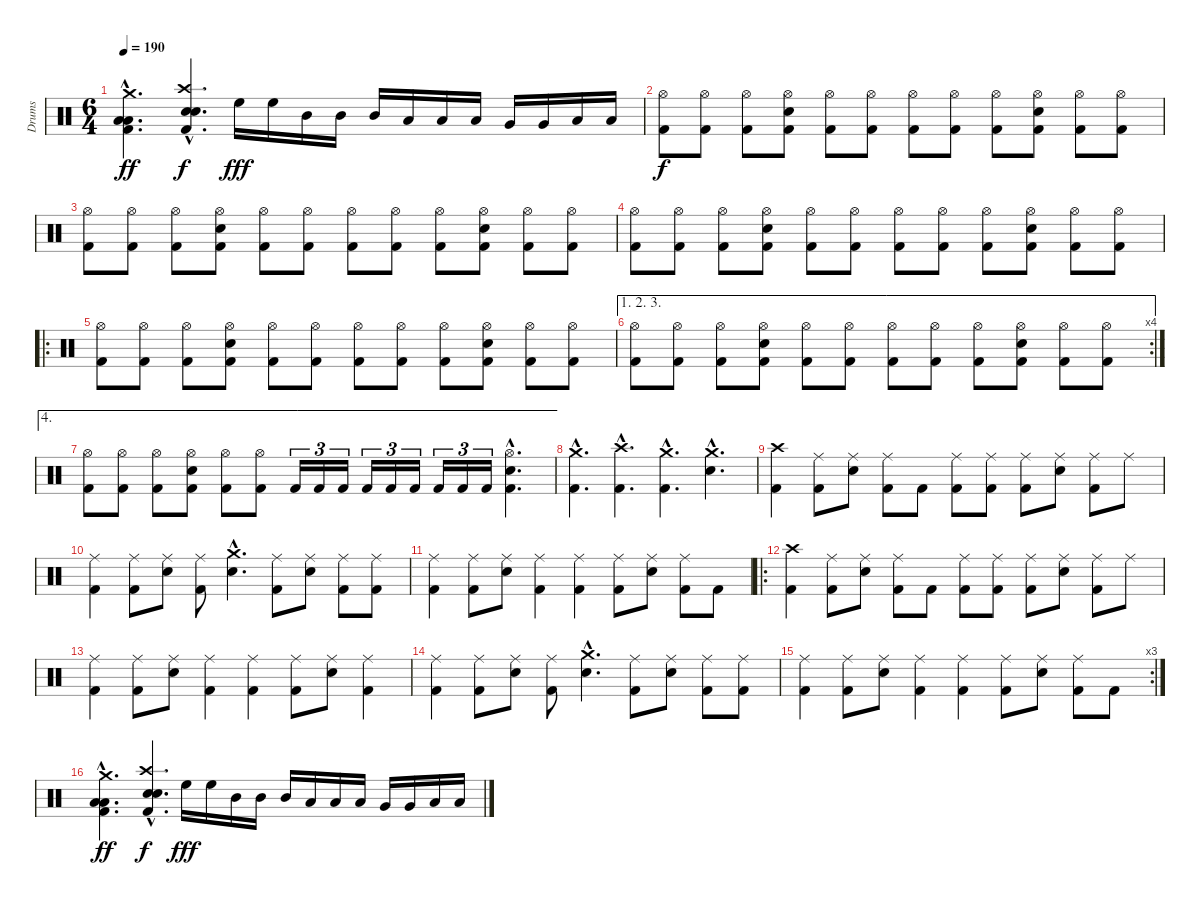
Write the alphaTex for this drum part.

\track ("Drums" "Drums") {instrument percussion}
\staff {score}
\articulation defaults
\ts (6 4)
\tempo 190
\clef neutral
\ks c
("Crash medium (hit)"{hac} "Low Floor Tom (hit)"{hac} "Low Floor Tom (hit)"{hac} "Kick (hit) 2"{hac}).4{d dy ff} ("Crash high (hit)"{hac} "Electric Snare (hit)"{hac} "Electric Snare (hit)"{hac} "Kick (hit) 2"{hac}).4{d dy f} "High Floor Tom (hit)".16{dy fff} "High Floor Tom (hit)".16 "Mid Tom (hit)".16 "Mid Tom (hit)".16 "Mid Tom (hit)".16 "Low Tom (hit)".16 "Low Tom (hit)".16 "Low Tom (hit)".16 "Very Low Tom (hit)".16 "Very Low Tom (hit)".16 "Low Floor Tom (hit)".16 "Low Floor Tom (hit)".16 |
("Hi-Hat (open)" "Kick (hit) 2").8{dy f} ("Hi-Hat (open)" "Kick (hit) 2").8 ("Hi-Hat (open)" "Kick (hit) 2").8 ("Hi-Hat (open)" "Electric Snare (hit)" "Kick (hit) 2").8 ("Hi-Hat (open)" "Kick (hit) 2").8 ("Hi-Hat (open)" "Kick (hit) 2").8 ("Hi-Hat (open)" "Kick (hit) 2").8 ("Hi-Hat (open)" "Kick (hit) 2").8 ("Hi-Hat (open)" "Kick (hit) 2").8 ("Hi-Hat (open)" "Electric Snare (hit)" "Kick (hit) 2").8 ("Hi-Hat (open)" "Kick (hit) 2").8 ("Hi-Hat (open)" "Kick (hit) 2").8 |
("Hi-Hat (open)" "Kick (hit) 2").8 ("Hi-Hat (open)" "Kick (hit) 2").8 ("Hi-Hat (open)" "Kick (hit) 2").8 ("Hi-Hat (open)" "Electric Snare (hit)" "Kick (hit) 2").8 ("Hi-Hat (open)" "Kick (hit) 2").8 ("Hi-Hat (open)" "Kick (hit) 2").8 ("Hi-Hat (open)" "Kick (hit) 2").8 ("Hi-Hat (open)" "Kick (hit) 2").8 ("Hi-Hat (open)" "Kick (hit) 2").8 ("Hi-Hat (open)" "Electric Snare (hit)" "Kick (hit) 2").8 ("Hi-Hat (open)" "Kick (hit) 2").8 ("Hi-Hat (open)" "Kick (hit) 2").8 |
("Hi-Hat (open)" "Kick (hit) 2").8 ("Hi-Hat (open)" "Kick (hit) 2").8 ("Hi-Hat (open)" "Kick (hit) 2").8 ("Hi-Hat (open)" "Electric Snare (hit)" "Kick (hit) 2").8 ("Hi-Hat (open)" "Kick (hit) 2").8 ("Hi-Hat (open)" "Kick (hit) 2").8 ("Hi-Hat (open)" "Kick (hit) 2").8 ("Hi-Hat (open)" "Kick (hit) 2").8 ("Hi-Hat (open)" "Kick (hit) 2").8 ("Hi-Hat (open)" "Electric Snare (hit)" "Kick (hit) 2").8 ("Hi-Hat (open)" "Kick (hit) 2").8 ("Hi-Hat (open)" "Kick (hit) 2").8 |
\ro
("Hi-Hat (open)" "Kick (hit) 2").8 ("Hi-Hat (open)" "Kick (hit) 2").8 ("Hi-Hat (open)" "Kick (hit) 2").8 ("Hi-Hat (open)" "Electric Snare (hit)" "Kick (hit) 2").8 ("Hi-Hat (open)" "Kick (hit) 2").8 ("Hi-Hat (open)" "Kick (hit) 2").8 ("Hi-Hat (open)" "Kick (hit) 2").8 ("Hi-Hat (open)" "Kick (hit) 2").8 ("Hi-Hat (open)" "Kick (hit) 2").8 ("Hi-Hat (open)" "Electric Snare (hit)" "Kick (hit) 2").8 ("Hi-Hat (open)" "Kick (hit) 2").8 ("Hi-Hat (open)" "Kick (hit) 2").8 |
\ae (1 2 3)
\rc 4
("Hi-Hat (open)" "Kick (hit) 2").8 ("Hi-Hat (open)" "Kick (hit) 2").8 ("Hi-Hat (open)" "Kick (hit) 2").8 ("Hi-Hat (open)" "Electric Snare (hit)" "Kick (hit) 2").8 ("Hi-Hat (open)" "Kick (hit) 2").8 ("Hi-Hat (open)" "Kick (hit) 2").8 ("Hi-Hat (open)" "Kick (hit) 2").8 ("Hi-Hat (open)" "Kick (hit) 2").8 ("Hi-Hat (open)" "Kick (hit) 2").8 ("Hi-Hat (open)" "Electric Snare (hit)" "Kick (hit) 2").8 ("Hi-Hat (open)" "Kick (hit) 2").8 ("Hi-Hat (open)" "Kick (hit) 2").8 |
\ae 4
("Hi-Hat (open)" "Kick (hit) 2").8 ("Hi-Hat (open)" "Kick (hit) 2").8 ("Hi-Hat (open)" "Kick (hit) 2").8 ("Hi-Hat (open)" "Electric Snare (hit)" "Kick (hit) 2").8 ("Hi-Hat (open)" "Kick (hit) 2").8 ("Hi-Hat (open)" "Kick (hit) 2").8 "Kick (hit) 2".16{tu (3 2)} "Kick (hit) 2".16{tu (3 2)} "Kick (hit) 2".16{tu (3 2)} "Kick (hit) 2".16{tu (3 2)} "Kick (hit) 2".16{tu (3 2)} "Kick (hit) 2".16{tu (3 2)} "Kick (hit) 2".16{tu (3 2)} "Kick (hit) 2".16{tu (3 2)} "Kick (hit) 2".16{tu (3 2)} ("Hi-Hat (open)"{hac} "Electric Snare (hit)"{hac} "Kick (hit) 2"{hac}).4{d} |
("Crash medium (hit)"{hac} "Kick (hit) 2"{hac}).4{d} ("Crash high (hit)"{hac} "Kick (hit) 2"{hac}).4{d} ("Crash medium (hit)"{hac} "Kick (hit) 2"{hac}).4{d} ("Crash medium (hit)"{hac} "Electric Snare (hit)"{hac}).4{d} |
("Crash high (hit)" "Kick (hit) 2").4 ("Ride (middle)" "Kick (hit) 2").8 ("Ride (middle)" "Electric Snare (hit)").8 ("Ride (middle)" "Kick (hit) 2").8 "Kick (hit) 2".8 ("Ride (middle)" "Kick (hit) 2").8 ("Ride (middle)" "Kick (hit) 2").8 ("Ride (middle)" "Kick (hit) 2").8 ("Ride (middle)" "Electric Snare (hit)").8 ("Ride (middle)" "Kick (hit) 2").8 "Ride (middle)".8 |
("Ride (middle)" "Kick (hit) 2").4 ("Ride (middle)" "Kick (hit) 2").8 ("Ride (middle)" "Electric Snare (hit)").8 ("Ride (middle)" "Kick (hit) 2").8 ("Crash medium (hit)"{hac} "Electric Snare (hit)"{hac}).4{d} ("Ride (middle)" "Kick (hit) 2").8 ("Ride (middle)" "Electric Snare (hit)").8 ("Ride (middle)" "Kick (hit) 2").8 ("Ride (middle)" "Kick (hit) 2").8 |
("Ride (middle)" "Kick (hit) 2").4 ("Ride (middle)" "Kick (hit) 2").8 ("Ride (middle)" "Electric Snare (hit)").8 ("Ride (middle)" "Kick (hit) 2").4 ("Ride (middle)" "Kick (hit) 2").4 ("Ride (middle)" "Kick (hit) 2").8 ("Ride (middle)" "Electric Snare (hit)").8 ("Ride (middle)" "Kick (hit) 2").8 "Kick (hit) 2".8 |
\ro
("Crash high (hit)" "Kick (hit) 2").4 ("Ride (middle)" "Kick (hit) 2").8 ("Ride (middle)" "Electric Snare (hit)").8 ("Ride (middle)" "Kick (hit) 2").8 "Kick (hit) 2".8 ("Ride (middle)" "Kick (hit) 2").8 ("Ride (middle)" "Kick (hit) 2").8 ("Ride (middle)" "Kick (hit) 2").8 ("Ride (middle)" "Electric Snare (hit)").8 ("Ride (middle)" "Kick (hit) 2").8 "Ride (middle)".8 |
("Ride (middle)" "Kick (hit) 2").4 ("Ride (middle)" "Kick (hit) 2").8 ("Ride (middle)" "Electric Snare (hit)").8 ("Ride (middle)" "Kick (hit) 2").4 ("Ride (middle)" "Kick (hit) 2").4 ("Ride (middle)" "Kick (hit) 2").8 ("Ride (middle)" "Electric Snare (hit)").8 ("Ride (middle)" "Kick (hit) 2").4 |
("Ride (middle)" "Kick (hit) 2").4 ("Ride (middle)" "Kick (hit) 2").8 ("Ride (middle)" "Electric Snare (hit)").8 ("Ride (middle)" "Kick (hit) 2").8 ("Crash medium (hit)"{hac} "Electric Snare (hit)"{hac}).4{d} ("Ride (middle)" "Kick (hit) 2").8 ("Ride (middle)" "Electric Snare (hit)").8 ("Ride (middle)" "Kick (hit) 2").8 ("Ride (middle)" "Kick (hit) 2").8 |
\rc 3
("Ride (middle)" "Kick (hit) 2").4 ("Ride (middle)" "Kick (hit) 2").8 ("Ride (middle)" "Electric Snare (hit)").8 ("Ride (middle)" "Kick (hit) 2").4 ("Ride (middle)" "Kick (hit) 2").4 ("Ride (middle)" "Kick (hit) 2").8 ("Ride (middle)" "Electric Snare (hit)").8 ("Ride (middle)" "Kick (hit) 2").8 "Kick (hit) 2".8 |
("Crash medium (hit)"{hac} "Low Floor Tom (hit)"{hac} "Low Floor Tom (hit)"{hac} "Kick (hit) 2"{hac}).4{d dy ff} ("Crash high (hit)"{hac} "Electric Snare (hit)"{hac} "Electric Snare (hit)"{hac} "Kick (hit) 2"{hac}).4{d dy f} "High Floor Tom (hit)".16{dy fff} "High Floor Tom (hit)".16 "Mid Tom (hit)".16 "Mid Tom (hit)".16 "Mid Tom (hit)".16 "Low Tom (hit)".16 "Low Tom (hit)".16 "Low Tom (hit)".16 "Very Low Tom (hit)".16 "Very Low Tom (hit)".16 "Low Floor Tom (hit)".16 "Low Floor Tom (hit)".16
